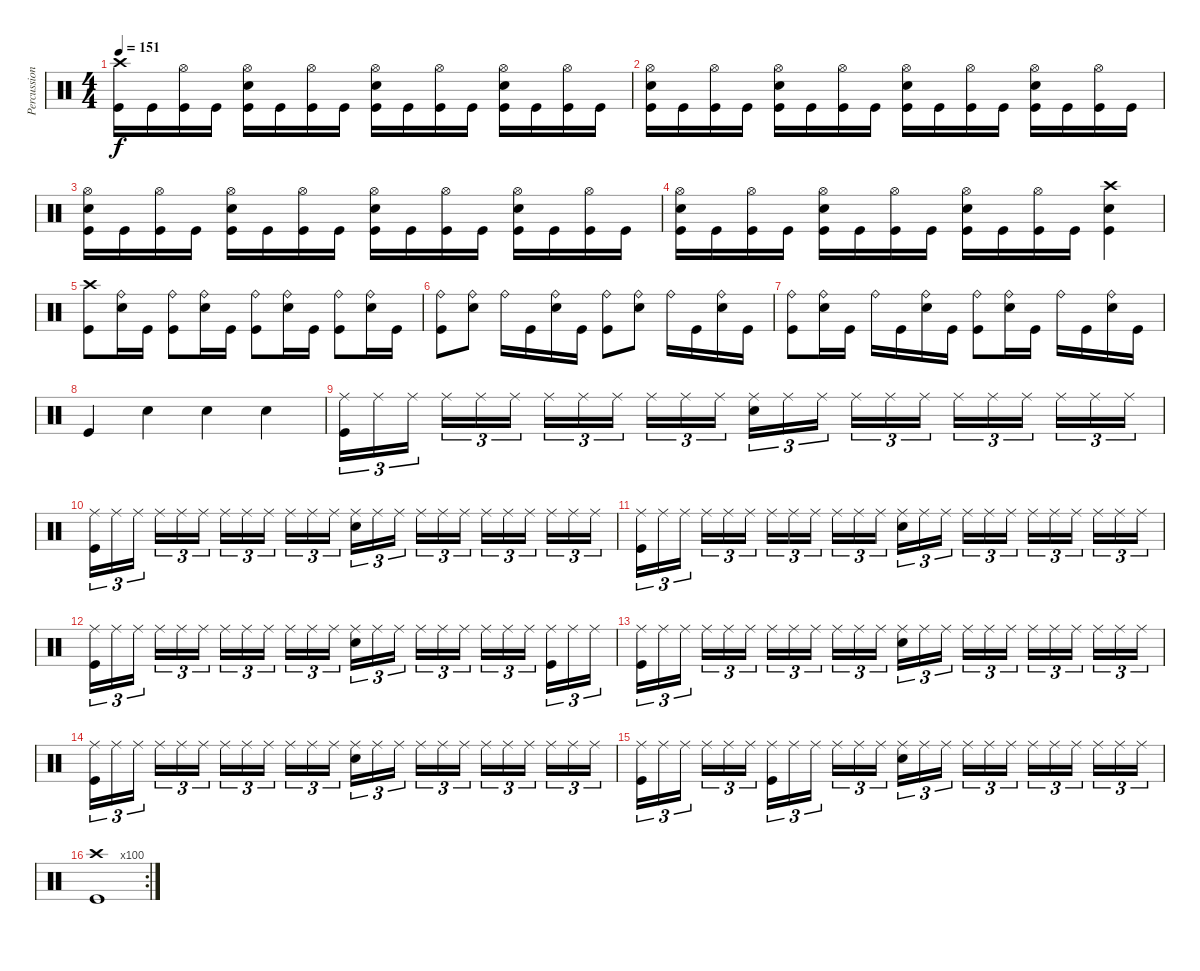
\track ("Percussion" "Percussion") {instrument percussion}
\staff {score}
\articulation defaults
\ts (4 4)
\tempo 151
\clef neutral
\ks c
("Crash high (hit)" "Kick (hit)").16{dy f} "Kick (hit)".16 ("Hi-Hat (open)" "Kick (hit)").16 "Kick (hit)".16 ("Hi-Hat (open)" "Snare (hit) 2" "Kick (hit)").16 "Kick (hit)".16 ("Hi-Hat (open)" "Kick (hit)").16 "Kick (hit)".16 ("Hi-Hat (open)" "Snare (hit) 2" "Kick (hit)").16 "Kick (hit)".16 ("Hi-Hat (open)" "Kick (hit)").16 "Kick (hit)".16 ("Hi-Hat (open)" "Snare (hit) 2" "Kick (hit)").16 "Kick (hit)".16 ("Hi-Hat (open)" "Kick (hit)").16 "Kick (hit)".16 |
("Hi-Hat (open)" "Snare (hit) 2" "Kick (hit)").16 "Kick (hit)".16 ("Hi-Hat (open)" "Kick (hit)").16 "Kick (hit)".16 ("Hi-Hat (open)" "Snare (hit) 2" "Kick (hit)").16 "Kick (hit)".16 ("Hi-Hat (open)" "Kick (hit)").16 "Kick (hit)".16 ("Hi-Hat (open)" "Snare (hit) 2" "Kick (hit)").16 "Kick (hit)".16 ("Hi-Hat (open)" "Kick (hit)").16 "Kick (hit)".16 ("Hi-Hat (open)" "Snare (hit) 2" "Kick (hit)").16 "Kick (hit)".16 ("Hi-Hat (open)" "Kick (hit)").16 "Kick (hit)".16 |
("Hi-Hat (open)" "Snare (hit) 2" "Kick (hit)").16 "Kick (hit)".16 ("Hi-Hat (open)" "Kick (hit)").16 "Kick (hit)".16 ("Hi-Hat (open)" "Snare (hit) 2" "Kick (hit)").16 "Kick (hit)".16 ("Hi-Hat (open)" "Kick (hit)").16 "Kick (hit)".16 ("Hi-Hat (open)" "Snare (hit) 2" "Kick (hit)").16 "Kick (hit)".16 ("Hi-Hat (open)" "Kick (hit)").16 "Kick (hit)".16 ("Hi-Hat (open)" "Snare (hit) 2" "Kick (hit)").16 "Kick (hit)".16 ("Hi-Hat (open)" "Kick (hit)").16 "Kick (hit)".16 |
("Hi-Hat (open)" "Snare (hit) 2" "Kick (hit)").16 "Kick (hit)".16 ("Hi-Hat (open)" "Kick (hit)").16 "Kick (hit)".16 ("Hi-Hat (open)" "Snare (hit) 2" "Kick (hit)").16 "Kick (hit)".16 ("Hi-Hat (open)" "Kick (hit)").16 "Kick (hit)".16 ("Hi-Hat (open)" "Snare (hit) 2" "Kick (hit)").16 "Kick (hit)".16 ("Hi-Hat (open)" "Kick (hit)").16 "Kick (hit)".16 ("Crash high (hit)" "Snare (hit) 2" "Kick (hit)").4 |
("Crash high (hit)" "Kick (hit)").8 ("Ride (bell)" "Snare (hit) 2").16 "Kick (hit)".16 ("Ride (bell)" "Kick (hit)").8 ("Ride (bell)" "Snare (hit) 2").16 "Kick (hit)".16 ("Ride (bell)" "Kick (hit)").8 ("Ride (bell)" "Snare (hit) 2").16 "Kick (hit)".16 ("Ride (bell)" "Kick (hit)").8 ("Ride (bell)" "Snare (hit) 2").16 "Kick (hit)".16 |
("Ride (bell)" "Kick (hit)").8 ("Ride (bell)" "Snare (hit) 2").8 "Ride (bell)".16 "Kick (hit)".16 ("Ride (bell)" "Snare (hit) 2").16 "Kick (hit)".16 ("Ride (bell)" "Kick (hit)").8 ("Ride (bell)" "Snare (hit) 2").8 "Ride (bell)".16 "Kick (hit)".16 ("Ride (bell)" "Snare (hit) 2").16 "Kick (hit)".16 |
("Ride (bell)" "Kick (hit)").8 ("Ride (bell)" "Snare (hit) 2").16 "Kick (hit)".16 "Ride (bell)".16 "Kick (hit)".16 ("Ride (bell)" "Snare (hit) 2").16 "Kick (hit)".16 ("Ride (bell)" "Kick (hit)").8 ("Ride (bell)" "Snare (hit) 2").16 "Kick (hit)".16 "Ride (bell)".16 "Kick (hit)".16 ("Ride (bell)" "Snare (hit) 2").16 "Kick (hit)".16 |
"Kick (hit)".4 "Snare (hit) 2".4 "Snare (hit) 2".4 "Hand Clap (hit)".4 |
("Ride (middle)" "Kick (hit)").16{tu (3 2)} "Ride (middle)".16{tu (3 2)} "Ride (middle)".16{tu (3 2)} "Ride (middle)".16{tu (3 2)} "Ride (middle)".16{tu (3 2)} "Ride (middle)".16{tu (3 2)} "Ride (middle)".16{tu (3 2)} "Ride (middle)".16{tu (3 2)} "Ride (middle)".16{tu (3 2)} "Ride (middle)".16{tu (3 2)} "Ride (middle)".16{tu (3 2)} "Ride (middle)".16{tu (3 2)} ("Ride (middle)" "Snare (hit) 2").16{tu (3 2)} "Ride (middle)".16{tu (3 2)} "Ride (middle)".16{tu (3 2)} "Ride (middle)".16{tu (3 2)} "Ride (middle)".16{tu (3 2)} "Ride (middle)".16{tu (3 2)} "Ride (middle)".16{tu (3 2)} "Ride (middle)".16{tu (3 2)} "Ride (middle)".16{tu (3 2)} "Ride (middle)".16{tu (3 2)} "Ride (middle)".16{tu (3 2)} "Ride (middle)".16{tu (3 2)} |
("Ride (middle)" "Kick (hit)").16{tu (3 2)} "Ride (middle)".16{tu (3 2)} "Ride (middle)".16{tu (3 2)} "Ride (middle)".16{tu (3 2)} "Ride (middle)".16{tu (3 2)} "Ride (middle)".16{tu (3 2)} "Ride (middle)".16{tu (3 2)} "Ride (middle)".16{tu (3 2)} "Ride (middle)".16{tu (3 2)} "Ride (middle)".16{tu (3 2)} "Ride (middle)".16{tu (3 2)} "Ride (middle)".16{tu (3 2)} ("Ride (middle)" "Snare (hit) 2").16{tu (3 2)} "Ride (middle)".16{tu (3 2)} "Ride (middle)".16{tu (3 2)} "Ride (middle)".16{tu (3 2)} "Ride (middle)".16{tu (3 2)} "Ride (middle)".16{tu (3 2)} "Ride (middle)".16{tu (3 2)} "Ride (middle)".16{tu (3 2)} "Ride (middle)".16{tu (3 2)} "Ride (middle)".16{tu (3 2)} "Ride (middle)".16{tu (3 2)} "Ride (middle)".16{tu (3 2)} |
("Ride (middle)" "Kick (hit)").16{tu (3 2)} "Ride (middle)".16{tu (3 2)} "Ride (middle)".16{tu (3 2)} "Ride (middle)".16{tu (3 2)} "Ride (middle)".16{tu (3 2)} "Ride (middle)".16{tu (3 2)} "Ride (middle)".16{tu (3 2)} "Ride (middle)".16{tu (3 2)} "Ride (middle)".16{tu (3 2)} "Ride (middle)".16{tu (3 2)} "Ride (middle)".16{tu (3 2)} "Ride (middle)".16{tu (3 2)} ("Ride (middle)" "Snare (hit) 2").16{tu (3 2)} "Ride (middle)".16{tu (3 2)} "Ride (middle)".16{tu (3 2)} "Ride (middle)".16{tu (3 2)} "Ride (middle)".16{tu (3 2)} "Ride (middle)".16{tu (3 2)} "Ride (middle)".16{tu (3 2)} "Ride (middle)".16{tu (3 2)} "Ride (middle)".16{tu (3 2)} "Ride (middle)".16{tu (3 2)} "Ride (middle)".16{tu (3 2)} "Ride (middle)".16{tu (3 2)} |
("Ride (middle)" "Kick (hit)").16{tu (3 2)} "Ride (middle)".16{tu (3 2)} "Ride (middle)".16{tu (3 2)} "Ride (middle)".16{tu (3 2)} "Ride (middle)".16{tu (3 2)} "Ride (middle)".16{tu (3 2)} "Ride (middle)".16{tu (3 2)} "Ride (middle)".16{tu (3 2)} "Ride (middle)".16{tu (3 2)} "Ride (middle)".16{tu (3 2)} "Ride (middle)".16{tu (3 2)} "Ride (middle)".16{tu (3 2)} ("Ride (middle)" "Snare (hit) 2").16{tu (3 2)} "Ride (middle)".16{tu (3 2)} "Ride (middle)".16{tu (3 2)} "Ride (middle)".16{tu (3 2)} "Ride (middle)".16{tu (3 2)} "Ride (middle)".16{tu (3 2)} "Ride (middle)".16{tu (3 2)} "Ride (middle)".16{tu (3 2)} "Ride (middle)".16{tu (3 2)} ("Ride (middle)" "Kick (hit)").16{tu (3 2)} "Ride (middle)".16{tu (3 2)} "Ride (middle)".16{tu (3 2)} |
("Ride (middle)" "Kick (hit)").16{tu (3 2)} "Ride (middle)".16{tu (3 2)} "Ride (middle)".16{tu (3 2)} "Ride (middle)".16{tu (3 2)} "Ride (middle)".16{tu (3 2)} "Ride (middle)".16{tu (3 2)} "Ride (middle)".16{tu (3 2)} "Ride (middle)".16{tu (3 2)} "Ride (middle)".16{tu (3 2)} "Ride (middle)".16{tu (3 2)} "Ride (middle)".16{tu (3 2)} "Ride (middle)".16{tu (3 2)} ("Ride (middle)" "Snare (hit) 2").16{tu (3 2)} "Ride (middle)".16{tu (3 2)} "Ride (middle)".16{tu (3 2)} "Ride (middle)".16{tu (3 2)} "Ride (middle)".16{tu (3 2)} "Ride (middle)".16{tu (3 2)} "Ride (middle)".16{tu (3 2)} "Ride (middle)".16{tu (3 2)} "Ride (middle)".16{tu (3 2)} "Ride (middle)".16{tu (3 2)} "Ride (middle)".16{tu (3 2)} "Ride (middle)".16{tu (3 2)} |
("Ride (middle)" "Kick (hit)").16{tu (3 2)} "Ride (middle)".16{tu (3 2)} "Ride (middle)".16{tu (3 2)} "Ride (middle)".16{tu (3 2)} "Ride (middle)".16{tu (3 2)} "Ride (middle)".16{tu (3 2)} "Ride (middle)".16{tu (3 2)} "Ride (middle)".16{tu (3 2)} "Ride (middle)".16{tu (3 2)} "Ride (middle)".16{tu (3 2)} "Ride (middle)".16{tu (3 2)} "Ride (middle)".16{tu (3 2)} ("Ride (middle)" "Snare (hit) 2").16{tu (3 2)} "Ride (middle)".16{tu (3 2)} "Ride (middle)".16{tu (3 2)} "Ride (middle)".16{tu (3 2)} "Ride (middle)".16{tu (3 2)} "Ride (middle)".16{tu (3 2)} "Ride (middle)".16{tu (3 2)} "Ride (middle)".16{tu (3 2)} "Ride (middle)".16{tu (3 2)} "Ride (middle)".16{tu (3 2)} "Ride (middle)".16{tu (3 2)} "Ride (middle)".16{tu (3 2)} |
("Ride (middle)" "Kick (hit)").16{tu (3 2)} "Ride (middle)".16{tu (3 2)} "Ride (middle)".16{tu (3 2)} "Ride (middle)".16{tu (3 2)} "Ride (middle)".16{tu (3 2)} "Ride (middle)".16{tu (3 2)} ("Ride (middle)" "Kick (hit)").16{tu (3 2)} "Ride (middle)".16{tu (3 2)} "Ride (middle)".16{tu (3 2)} "Ride (middle)".16{tu (3 2)} "Ride (middle)".16{tu (3 2)} "Ride (middle)".16{tu (3 2)} ("Ride (middle)" "Snare (hit) 2").16{tu (3 2)} "Ride (middle)".16{tu (3 2)} "Ride (middle)".16{tu (3 2)} "Ride (middle)".16{tu (3 2)} "Ride (middle)".16{tu (3 2)} "Ride (middle)".16{tu (3 2)} "Ride (middle)".16{tu (3 2)} "Ride (middle)".16{tu (3 2)} "Ride (middle)".16{tu (3 2)} "Ride (middle)".16{tu (3 2)} "Ride (middle)".16{tu (3 2)} "Ride (middle)".16{tu (3 2)} |
\rc 100
("Crash high (hit)" "Kick (hit)").1
